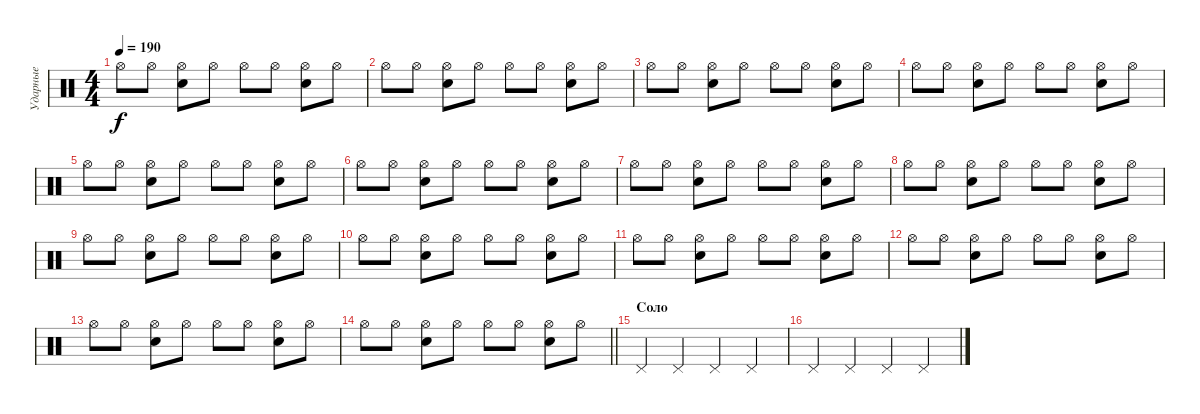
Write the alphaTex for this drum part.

\track ("Ударные" "Ударные") {instrument percussion}
\staff {score}
\articulation defaults
\ts (4 4)
\tempo 190
\clef neutral
\ks c "Hi-Hat (open)".8{dy f} "Hi-Hat (open)".8
("Hi-Hat (open)" "Electric Snare (hit)").8 "Hi-Hat (open)".8 "Hi-Hat (open)".8 "Hi-Hat (open)".8 ("Hi-Hat (open)" "Electric Snare (hit)").8 "Hi-Hat (open)".8 |
"Hi-Hat (open)".8 "Hi-Hat (open)".8 ("Hi-Hat (open)" "Electric Snare (hit)").8 "Hi-Hat (open)".8 "Hi-Hat (open)".8 "Hi-Hat (open)".8 ("Hi-Hat (open)" "Electric Snare (hit)").8 "Hi-Hat (open)".8 |
"Hi-Hat (open)".8 "Hi-Hat (open)".8 ("Hi-Hat (open)" "Electric Snare (hit)").8 "Hi-Hat (open)".8 "Hi-Hat (open)".8 "Hi-Hat (open)".8 ("Hi-Hat (open)" "Electric Snare (hit)").8 "Hi-Hat (open)".8 |
"Hi-Hat (open)".8 "Hi-Hat (open)".8 ("Hi-Hat (open)" "Electric Snare (hit)").8 "Hi-Hat (open)".8 "Hi-Hat (open)".8 "Hi-Hat (open)".8 ("Hi-Hat (open)" "Electric Snare (hit)").8 "Hi-Hat (open)".8 |
"Hi-Hat (open)".8 "Hi-Hat (open)".8 ("Hi-Hat (open)" "Electric Snare (hit)").8 "Hi-Hat (open)".8 "Hi-Hat (open)".8 "Hi-Hat (open)".8 ("Hi-Hat (open)" "Electric Snare (hit)").8 "Hi-Hat (open)".8 |
"Hi-Hat (open)".8 "Hi-Hat (open)".8 ("Hi-Hat (open)" "Electric Snare (hit)").8 "Hi-Hat (open)".8 "Hi-Hat (open)".8 "Hi-Hat (open)".8 ("Hi-Hat (open)" "Electric Snare (hit)").8 "Hi-Hat (open)".8 |
"Hi-Hat (open)".8 "Hi-Hat (open)".8 ("Hi-Hat (open)" "Electric Snare (hit)").8 "Hi-Hat (open)".8 "Hi-Hat (open)".8 "Hi-Hat (open)".8 ("Hi-Hat (open)" "Electric Snare (hit)").8 "Hi-Hat (open)".8 |
"Hi-Hat (open)".8 "Hi-Hat (open)".8 ("Hi-Hat (open)" "Electric Snare (hit)").8 "Hi-Hat (open)".8 "Hi-Hat (open)".8 "Hi-Hat (open)".8 ("Hi-Hat (open)" "Electric Snare (hit)").8 "Hi-Hat (open)".8 |
"Hi-Hat (open)".8 "Hi-Hat (open)".8 ("Hi-Hat (open)" "Electric Snare (hit)").8 "Hi-Hat (open)".8 "Hi-Hat (open)".8 "Hi-Hat (open)".8 ("Hi-Hat (open)" "Electric Snare (hit)").8 "Hi-Hat (open)".8 |
"Hi-Hat (open)".8 "Hi-Hat (open)".8 ("Hi-Hat (open)" "Electric Snare (hit)").8 "Hi-Hat (open)".8 "Hi-Hat (open)".8 "Hi-Hat (open)".8 ("Hi-Hat (open)" "Electric Snare (hit)").8 "Hi-Hat (open)".8 |
"Hi-Hat (open)".8 "Hi-Hat (open)".8 ("Hi-Hat (open)" "Electric Snare (hit)").8 "Hi-Hat (open)".8 "Hi-Hat (open)".8 "Hi-Hat (open)".8 ("Hi-Hat (open)" "Electric Snare (hit)").8 "Hi-Hat (open)".8 |
"Hi-Hat (open)".8 "Hi-Hat (open)".8 ("Hi-Hat (open)" "Electric Snare (hit)").8 "Hi-Hat (open)".8 "Hi-Hat (open)".8 "Hi-Hat (open)".8 ("Hi-Hat (open)" "Electric Snare (hit)").8 "Hi-Hat (open)".8 |
"Hi-Hat (open)".8 "Hi-Hat (open)".8 ("Hi-Hat (open)" "Electric Snare (hit)").8 "Hi-Hat (open)".8 "Hi-Hat (open)".8 "Hi-Hat (open)".8 ("Hi-Hat (open)" "Electric Snare (hit)").8 "Hi-Hat (open)".8 |
\barLineRight lightlight "Hi-Hat (open)".8 "Hi-Hat (open)".8
("Hi-Hat (open)" "Electric Snare (hit)").8 "Hi-Hat (open)".8 "Hi-Hat (open)".8 "Hi-Hat (open)".8 ("Hi-Hat (open)" "Electric Snare (hit)").8 "Hi-Hat (open)".8 |
\section ("" "Соло")
"Pedal Hi-Hat (hit)".4 "Pedal Hi-Hat (hit)".4 "Pedal Hi-Hat (hit)".4 "Pedal Hi-Hat (hit)".4 |
"Pedal Hi-Hat (hit)".4 "Pedal Hi-Hat (hit)".4 "Pedal Hi-Hat (hit)".4 "Pedal Hi-Hat (hit)".4
